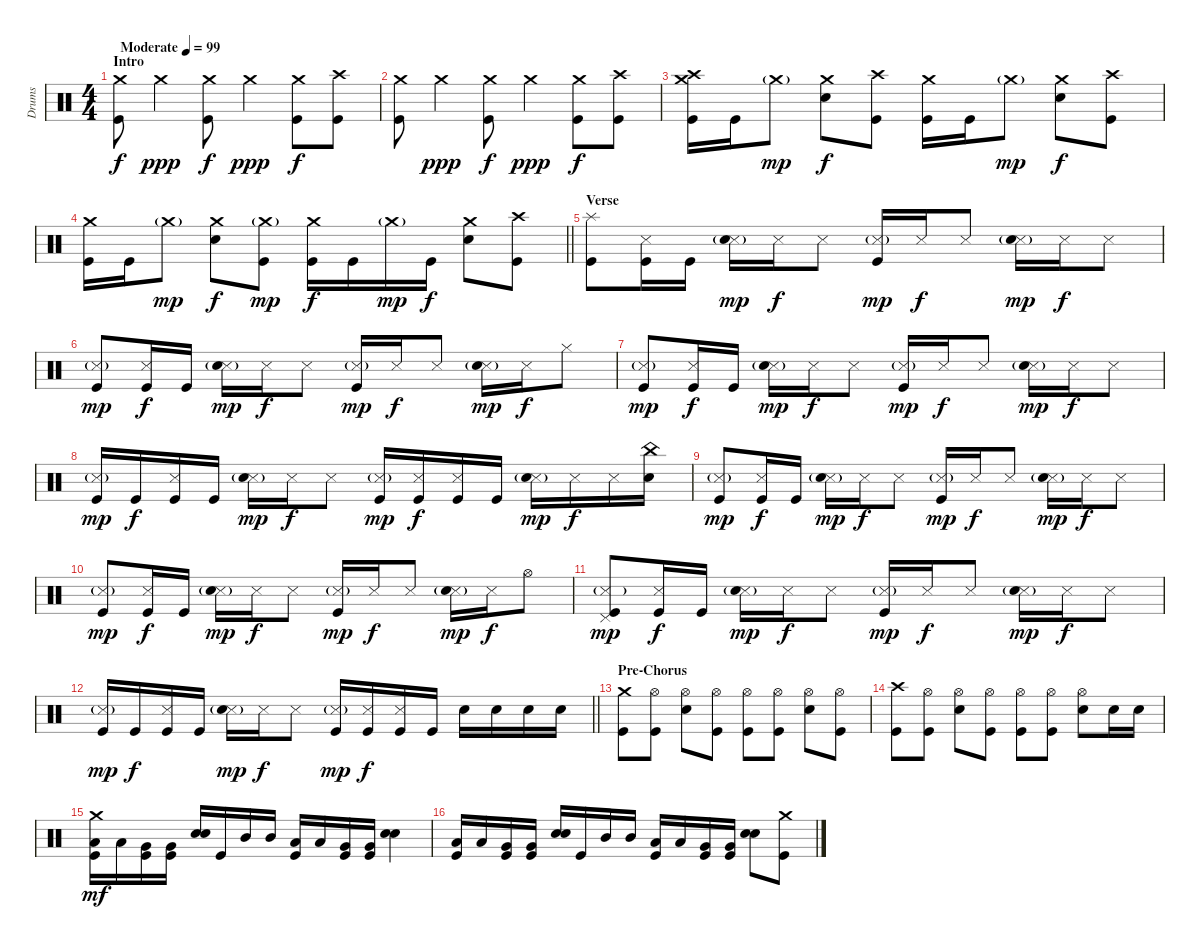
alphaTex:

\track ("Drums" "Drums") {instrument percussion}
\staff {score}
\articulation defaults
\ts (4 4)
\section ("" "Intro")
\tempo (99 "Moderate")
\clef neutral
\ks c
("Crash medium (hit)" "Kick (hit)").8{dy f} "Crash medium (hit)".4{dy ppp} ("Crash medium (hit)" "Kick (hit)").8{dy f} "Crash medium (hit)".4{dy ppp} ("Crash medium (hit)" "Kick (hit)").8{dy f} ("Crash high (hit)" "Kick (hit)").8 |
("Crash medium (hit)" "Kick (hit)").8 "Crash medium (hit)".4{dy ppp} ("Crash medium (hit)" "Kick (hit)").8{dy f} "Crash medium (hit)".4{dy ppp} ("Crash medium (hit)" "Kick (hit)").8{dy f} ("Crash high (hit)" "Kick (hit)").8 |
("Crash medium (hit)" "Crash high (hit)" "Kick (hit)").16 "Kick (hit)".16 "Crash medium (hit)"{g}.8{dy mp} ("Crash medium (hit)" "Snare (hit) 2").8{dy f} ("Crash high (hit)" "Kick (hit)").8 ("Crash medium (hit)" "Kick (hit)").16 "Kick (hit)".16 "Crash medium (hit)"{g}.8{dy mp} ("Crash medium (hit)" "Snare (hit) 2").8{dy f} ("Crash high (hit)" "Kick (hit)").8 |
\barLineRight lightlight
("Crash medium (hit)" "Kick (hit)").16 "Kick (hit)".16 "Crash medium (hit)"{g}.8{dy mp} ("Crash medium (hit)" "Snare (hit) 2").8{dy f} ("Crash medium (hit)"{g} "Kick (hit)").8{dy mp} ("Crash medium (hit)" "Kick (hit)").16{dy f} "Kick (hit)".16 "Crash medium (hit)"{g}.16{dy mp} "Kick (hit)".16{dy f} ("Crash medium (hit)" "Snare (hit) 2").8 ("Crash high (hit)" "Kick (hit)").8 |
\section ("" "Verse")
("Splash (hit)" "Kick (hit)").8 ("Snare (side stick) 3" "Kick (hit)").16 "Kick (hit)".16 ("Snare (side stick) 3"{g} "Snare (hit) 2").16{dy mp} "Snare (side stick) 3".16{dy f} "Snare (side stick) 3".8 ("Snare (side stick) 3"{g} "Kick (hit)").16{dy mp} "Snare (side stick) 3".16{dy f} "Snare (side stick) 3".8 ("Snare (side stick) 3"{g} "Snare (hit) 2").16{dy mp} "Snare (side stick) 3".16{dy f} "Snare (side stick) 3".8 |
("Snare (side stick) 3"{g} "Kick (hit)").8{dy mp} ("Snare (side stick) 3" "Kick (hit)").16{dy f} "Kick (hit)".16 ("Snare (side stick) 3"{g} "Snare (hit) 2").16{dy mp} "Snare (side stick) 3".16{dy f} "Snare (side stick) 3".8 ("Snare (side stick) 3"{g} "Kick (hit)").16{dy mp} "Snare (side stick) 3".16{dy f} "Snare (side stick) 3".8 ("Snare (side stick) 3"{g} "Snare (hit) 2").16{dy mp} "Snare (side stick) 3".16{dy f} "Hi-Hat (closed)".8 |
("Snare (side stick) 3"{g} "Kick (hit)").8{dy mp} ("Snare (side stick) 3" "Kick (hit)").16{dy f} "Kick (hit)".16 ("Snare (side stick) 3"{g} "Snare (hit) 2").16{dy mp} "Snare (side stick) 3".16{dy f} "Snare (side stick) 3".8 ("Snare (side stick) 3"{g} "Kick (hit)").16{dy mp} "Snare (side stick) 3".16{dy f} "Snare (side stick) 3".8 ("Snare (side stick) 3"{g} "Snare (hit) 2").16{dy mp} "Snare (side stick) 3".16{dy f} "Snare (side stick) 3".8 |
("Snare (side stick) 3"{g} "Kick (hit)").16{dy mp} "Kick (hit)".16{dy f} ("Snare (side stick) 3" "Kick (hit)").16 "Kick (hit)".16 ("Snare (side stick) 3"{g} "Snare (hit) 2").16{dy mp} "Snare (side stick) 3".16{dy f} "Snare (side stick) 3".8 ("Snare (side stick) 3"{g} "Kick (hit)").16{dy mp} ("Snare (side stick) 3" "Kick (hit)").16{dy f} ("Snare (side stick) 3" "Kick (hit)").16 "Kick (hit)".16 ("Snare (side stick) 3"{g} "Snare (hit) 2").16{dy mp} "Snare (side stick) 3".16{dy f} "Snare (side stick) 3".16 ("China (hit)" "Snare (hit) 2").16 |
("Snare (side stick) 3"{g} "Kick (hit)").8{dy mp} ("Snare (side stick) 3" "Kick (hit)").16{dy f} "Kick (hit)".16 ("Snare (side stick) 3"{g} "Snare (hit) 2").16{dy mp} "Snare (side stick) 3".16{dy f} "Snare (side stick) 3".8 ("Snare (side stick) 3"{g} "Kick (hit)").16{dy mp} "Snare (side stick) 3".16{dy f} "Snare (side stick) 3".8 ("Snare (side stick) 3"{g} "Snare (hit) 2").16{dy mp} "Snare (side stick) 3".16{dy f} "Snare (side stick) 3".8 |
("Snare (side stick) 3"{g} "Kick (hit)").8{dy mp} ("Snare (side stick) 3" "Kick (hit)").16{dy f} "Kick (hit)".16 ("Snare (side stick) 3"{g} "Snare (hit) 2").16{dy mp} "Snare (side stick) 3".16{dy f} "Snare (side stick) 3".8 ("Snare (side stick) 3"{g} "Kick (hit)").16{dy mp} "Snare (side stick) 3".16{dy f} "Snare (side stick) 3".8 ("Snare (side stick) 3"{g} "Snare (hit) 2").16{dy mp} "Snare (side stick) 3".16{dy f} "Hi-Hat (open)".8 |
("Pedal Hi-Hat (hit)" "Snare (side stick) 3"{g} "Kick (hit)").8{dy mp} ("Snare (side stick) 3" "Kick (hit)").16{dy f} "Kick (hit)".16 ("Snare (side stick) 3"{g} "Snare (hit) 2").16{dy mp} "Snare (side stick) 3".16{dy f} "Snare (side stick) 3".8 ("Snare (side stick) 3"{g} "Kick (hit)").16{dy mp} "Snare (side stick) 3".16{dy f} "Snare (side stick) 3".8 ("Snare (side stick) 3"{g} "Snare (hit) 2").16{dy mp} "Snare (side stick) 3".16{dy f} "Snare (side stick) 3".8 |
\barLineRight lightlight
("Snare (side stick) 3"{g} "Kick (hit)").16{dy mp} "Kick (hit)".16{dy f} ("Snare (side stick) 3" "Kick (hit)").16 "Kick (hit)".16 ("Snare (side stick) 3"{g} "Snare (hit) 2").16{dy mp} "Snare (side stick) 3".16{dy f} "Snare (side stick) 3".8 ("Snare (side stick) 3"{g} "Kick (hit)").16{dy mp} ("Snare (side stick) 3" "Kick (hit)").16{dy f} ("Snare (side stick) 3" "Kick (hit)").16 "Kick (hit)".16 "Snare (hit) 2".16 "Snare (hit) 2".16 "Snare (hit) 2".16 "Snare (hit) 2".16 |
\section ("" "Pre-Chorus")
("Crash medium (hit)" "Kick (hit)").8 ("Hi-Hat (open)" "Kick (hit)").8 ("Hi-Hat (open)" "Snare (hit) 2").8 ("Hi-Hat (open)" "Kick (hit)").8 ("Hi-Hat (open)" "Kick (hit)").8 ("Hi-Hat (open)" "Kick (hit)").8 ("Hi-Hat (open)" "Snare (hit) 2").8 ("Hi-Hat (open)" "Kick (hit)").8 |
("Crash high (hit)" "Kick (hit)").8 ("Hi-Hat (open)" "Kick (hit)").8 ("Hi-Hat (open)" "Snare (hit) 2").8 ("Hi-Hat (open)" "Kick (hit)").8 ("Hi-Hat (open)" "Kick (hit)").8 ("Hi-Hat (open)" "Kick (hit)").8 ("Hi-Hat (open)" "Snare (hit) 2").8 "Snare (hit) 2".16 "Snare (hit) 2".16 |
("Crash medium (hit)" "Low Tom (hit)" "Kick (hit)").16{dy mf} "Low Tom (hit)".16 ("Very Low Tom (hit)" "Kick (hit)").16 ("Very Low Tom (hit)" "Kick (hit)").16 ("Snare (hit) 2" "Snare (hit) 2").16 "Kick (hit)".16 "Mid Tom (hit)".16 "Mid Tom (hit)".16 ("Low Tom (hit)" "Kick (hit)").16 "Low Tom (hit)".16 ("Very Low Tom (hit)" "Kick (hit)").16 ("Very Low Tom (hit)" "Kick (hit)").16 ("Snare (hit) 2" "Snare (hit) 2").4 |
("Low Tom (hit)" "Kick (hit)").16 "Low Tom (hit)".16 ("Very Low Tom (hit)" "Kick (hit)").16 ("Very Low Tom (hit)" "Kick (hit)").16 ("Snare (hit) 2" "Snare (hit) 2").16 "Kick (hit)".16 "Mid Tom (hit)".16 "Mid Tom (hit)".16 ("Low Tom (hit)" "Kick (hit)").16 "Low Tom (hit)".16 ("Very Low Tom (hit)" "Kick (hit)").16 ("Very Low Tom (hit)" "Kick (hit)").16 ("Snare (hit) 2" "Snare (hit) 2").8 ("Crash medium (hit)" "Kick (hit)").8
